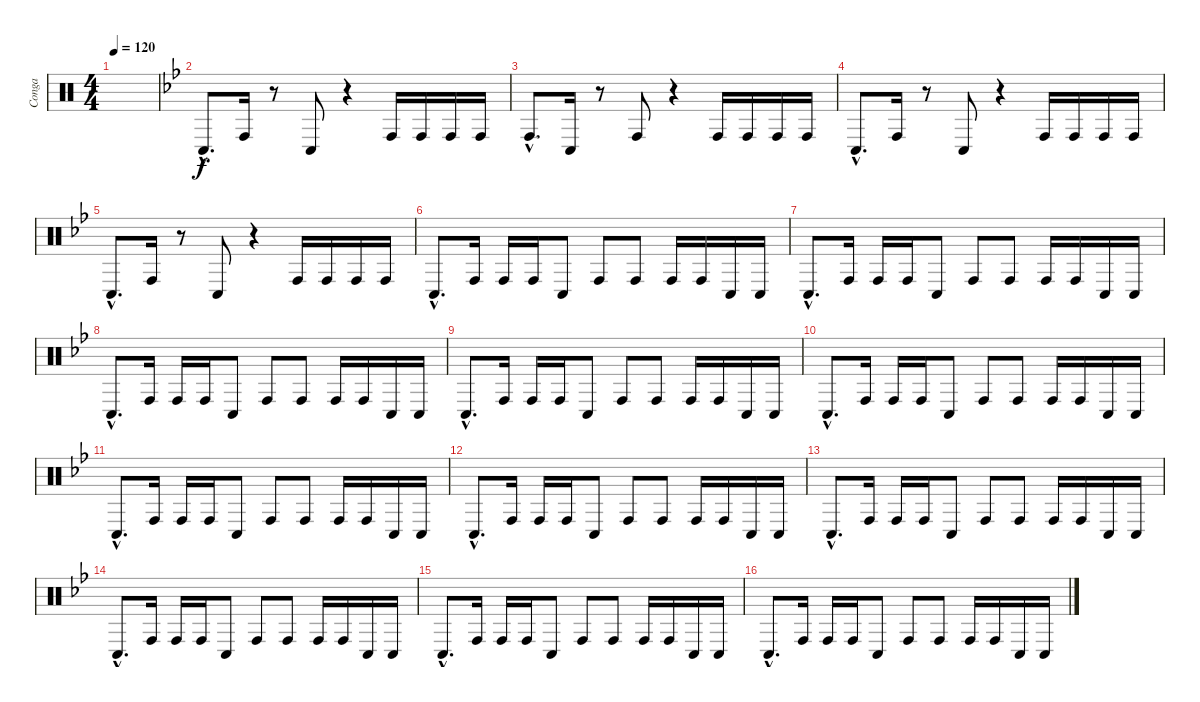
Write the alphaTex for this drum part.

\track ("Conga" "Conga") {instrument percussion}
\staff {score}
\articulation defaults
\ts (4 4)
\tempo 120
\clef neutral
\ks c
|
\ks bb "Conga low (hit)"{hac}.8{d} "Conga high (hit)".16
r.8 "Conga low (hit)".8 r.4 "Conga high (hit)".16 "Conga high (hit)".16 "Conga high (hit)".16 "Conga high (hit)".16 |
"Conga high (hit)"{hac}.8{d} "Conga low (hit)".16 r.8 "Conga high (hit)".8 r.4 "Conga high (hit)".16 "Conga high (hit)".16 "Conga high (hit)".16 "Conga high (hit)".16 |
"Conga low (hit)"{hac}.8{d} "Conga high (hit)".16 r.8 "Conga low (hit)".8 r.4 "Conga high (hit)".16 "Conga high (hit)".16 "Conga high (hit)".16 "Conga high (hit)".16 |
"Conga low (hit)"{hac}.8{d} "Conga high (hit)".16 r.8 "Conga low (hit)".8 r.4 "Conga high (hit)".16 "Conga high (hit)".16 "Conga high (hit)".16 "Conga high (hit)".16 |
"Conga low (hit)"{hac}.8{d} "Conga high (hit)".16 "Conga high (hit)".16 "Conga high (hit)".16 "Conga low (hit)".8 "Conga high (hit)".8 "Conga high (hit)".8 "Conga high (hit)".16 "Conga high (hit)".16 "Conga low (hit)".16 "Conga low (hit)".16 |
"Conga low (hit)"{hac}.8{d} "Conga high (hit)".16 "Conga high (hit)".16 "Conga high (hit)".16 "Conga low (hit)".8 "Conga high (hit)".8 "Conga high (hit)".8 "Conga high (hit)".16 "Conga high (hit)".16 "Conga low (hit)".16 "Conga low (hit)".16 |
"Conga low (hit)"{hac}.8{d} "Conga high (hit)".16 "Conga high (hit)".16 "Conga high (hit)".16 "Conga low (hit)".8 "Conga high (hit)".8 "Conga high (hit)".8 "Conga high (hit)".16 "Conga high (hit)".16 "Conga low (hit)".16 "Conga low (hit)".16 |
"Conga low (hit)"{hac}.8{d} "Conga high (hit)".16 "Conga high (hit)".16 "Conga high (hit)".16 "Conga low (hit)".8 "Conga high (hit)".8 "Conga high (hit)".8 "Conga high (hit)".16 "Conga high (hit)".16 "Conga low (hit)".16 "Conga low (hit)".16 |
"Conga low (hit)"{hac}.8{d} "Conga high (hit)".16 "Conga high (hit)".16 "Conga high (hit)".16 "Conga low (hit)".8 "Conga high (hit)".8 "Conga high (hit)".8 "Conga high (hit)".16 "Conga high (hit)".16 "Conga low (hit)".16 "Conga low (hit)".16 |
"Conga low (hit)"{hac}.8{d} "Conga high (hit)".16 "Conga high (hit)".16 "Conga high (hit)".16 "Conga low (hit)".8 "Conga high (hit)".8 "Conga high (hit)".8 "Conga high (hit)".16 "Conga high (hit)".16 "Conga low (hit)".16 "Conga low (hit)".16 |
"Conga low (hit)"{hac}.8{d} "Conga high (hit)".16 "Conga high (hit)".16 "Conga high (hit)".16 "Conga low (hit)".8 "Conga high (hit)".8 "Conga high (hit)".8 "Conga high (hit)".16 "Conga high (hit)".16 "Conga low (hit)".16 "Conga low (hit)".16 |
"Conga low (hit)"{hac}.8{d} "Conga high (hit)".16 "Conga high (hit)".16 "Conga high (hit)".16 "Conga low (hit)".8 "Conga high (hit)".8 "Conga high (hit)".8 "Conga high (hit)".16 "Conga high (hit)".16 "Conga low (hit)".16 "Conga low (hit)".16 |
"Conga low (hit)"{hac}.8{d} "Conga high (hit)".16 "Conga high (hit)".16 "Conga high (hit)".16 "Conga low (hit)".8 "Conga high (hit)".8 "Conga high (hit)".8 "Conga high (hit)".16 "Conga high (hit)".16 "Conga low (hit)".16 "Conga low (hit)".16 |
"Conga low (hit)"{hac}.8{d} "Conga high (hit)".16 "Conga high (hit)".16 "Conga high (hit)".16 "Conga low (hit)".8 "Conga high (hit)".8 "Conga high (hit)".8 "Conga high (hit)".16 "Conga high (hit)".16 "Conga low (hit)".16 "Conga low (hit)".16 |
"Conga low (hit)"{hac}.8{d} "Conga high (hit)".16 "Conga high (hit)".16 "Conga high (hit)".16 "Conga low (hit)".8 "Conga high (hit)".8 "Conga high (hit)".8 "Conga high (hit)".16 "Conga high (hit)".16 "Conga low (hit)".16 "Conga low (hit)".16
